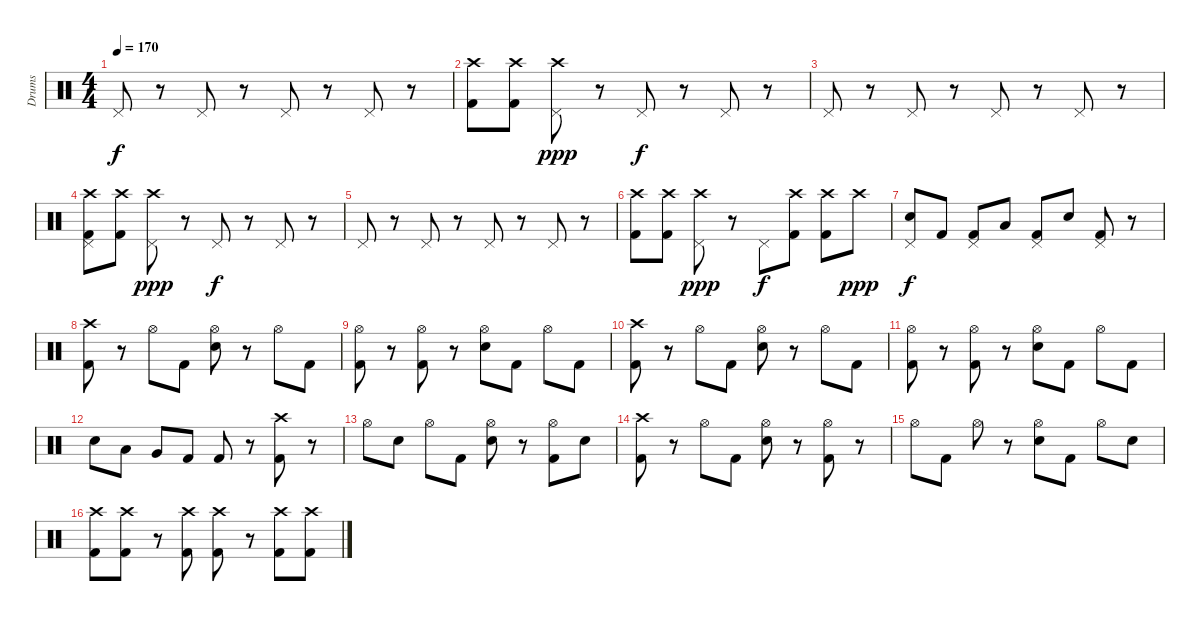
\track ("Drums" "Drums") {instrument percussion}
\staff {score}
\articulation defaults
\ts (4 4)
\tempo 170
\clef neutral
\ks c "Pedal Hi-Hat (hit)".8{dy f}
r.8 "Pedal Hi-Hat (hit)".8 r.8 "Pedal Hi-Hat (hit)".8 r.8 "Pedal Hi-Hat (hit)".8 r.8 |
("Crash high (hit)" "Kick (hit) 2").8 ("Crash high (hit)" "Kick (hit) 2").8 ("Crash high (hit)" "Pedal Hi-Hat (hit)").8{dy ppp} r.8 "Pedal Hi-Hat (hit)".8{dy f} r.8 "Pedal Hi-Hat (hit)".8 r.8 |
"Pedal Hi-Hat (hit)".8 r.8 "Pedal Hi-Hat (hit)".8 r.8 "Pedal Hi-Hat (hit)".8 r.8 "Pedal Hi-Hat (hit)".8 r.8 |
("Crash high (hit)" "Pedal Hi-Hat (hit)" "Kick (hit) 2").8 ("Crash high (hit)" "Kick (hit) 2").8 ("Crash high (hit)" "Pedal Hi-Hat (hit)").8{dy ppp} r.8 "Pedal Hi-Hat (hit)".8{dy f} r.8 "Pedal Hi-Hat (hit)".8 r.8 |
"Pedal Hi-Hat (hit)".8 r.8 "Pedal Hi-Hat (hit)".8 r.8 "Pedal Hi-Hat (hit)".8 r.8 "Pedal Hi-Hat (hit)".8 r.8 |
("Crash high (hit)" "Kick (hit) 2").8 ("Crash high (hit)" "Kick (hit) 2").8 ("Crash high (hit)" "Pedal Hi-Hat (hit)").8{dy ppp} r.8 "Pedal Hi-Hat (hit)".8{dy f} ("Crash high (hit)" "Kick (hit) 2").8 ("Crash high (hit)" "Kick (hit) 2").8 "Crash high (hit)".8{dy ppp} |
("Pedal Hi-Hat (hit)" "Electric Snare (hit)").8{dy f} "Kick (hit) 2".8 ("Pedal Hi-Hat (hit)" "Kick (hit) 2").8 "Low Tom (hit)".8 ("Pedal Hi-Hat (hit)" "Kick (hit) 2").8 "Electric Snare (hit)".8 ("Pedal Hi-Hat (hit)" "Kick (hit) 2").8 r.8 |
("Crash high (hit)" "Kick (hit) 2").8 r.8 "Hi-Hat (open)".8 "Kick (hit) 2".8 ("Hi-Hat (open)" "Electric Snare (hit)").8 r.8 "Hi-Hat (open)".8 "Kick (hit) 2".8 |
("Hi-Hat (open)" "Kick (hit) 2").8 r.8 ("Hi-Hat (open)" "Kick (hit) 2").8 r.8 ("Hi-Hat (open)" "Electric Snare (hit)").8 "Kick (hit) 2".8 "Hi-Hat (open)".8 "Kick (hit) 2".8 |
("Crash high (hit)" "Kick (hit) 2").8 r.8 "Hi-Hat (open)".8 "Kick (hit) 2".8 ("Hi-Hat (open)" "Electric Snare (hit)").8 r.8 "Hi-Hat (open)".8 "Kick (hit) 2".8 |
("Hi-Hat (open)" "Kick (hit) 2").8 r.8 ("Hi-Hat (open)" "Kick (hit) 2").8 r.8 ("Hi-Hat (open)" "Electric Snare (hit)").8 "Kick (hit) 2".8 "Hi-Hat (open)".8 "Kick (hit) 2".8 |
"Electric Snare (hit)".8 "Low Tom (hit)".8 "Very Low Tom (hit)".8 "Kick (hit) 2".8 "Kick (hit) 2".8 r.8 ("Crash high (hit)" "Kick (hit) 2").8 r.8 |
"Hi-Hat (open)".8 "Electric Snare (hit)".8 "Hi-Hat (open)".8 "Kick (hit) 2".8 ("Hi-Hat (open)" "Electric Snare (hit)").8 r.8 ("Hi-Hat (open)" "Kick (hit) 2").8 "Electric Snare (hit)".8 |
("Crash high (hit)" "Kick (hit) 2").8 r.8 "Hi-Hat (open)".8 "Kick (hit) 2".8 ("Hi-Hat (open)" "Electric Snare (hit)").8 r.8 ("Hi-Hat (open)" "Kick (hit) 2").8 r.8 |
"Hi-Hat (open)".8 "Kick (hit) 2".8 "Hi-Hat (open)".8 r.8 ("Hi-Hat (open)" "Electric Snare (hit)").8 "Kick (hit) 2".8 "Hi-Hat (open)".8 "Electric Snare (hit)".8 |
("Crash high (hit)" "Kick (hit) 2").8 ("Crash high (hit)" "Kick (hit) 2").8 r.8 ("Crash high (hit)" "Kick (hit) 2").8 ("Crash high (hit)" "Kick (hit) 2").8 r.8 ("Crash high (hit)" "Kick (hit) 2").8 ("Crash high (hit)" "Kick (hit) 2").8
